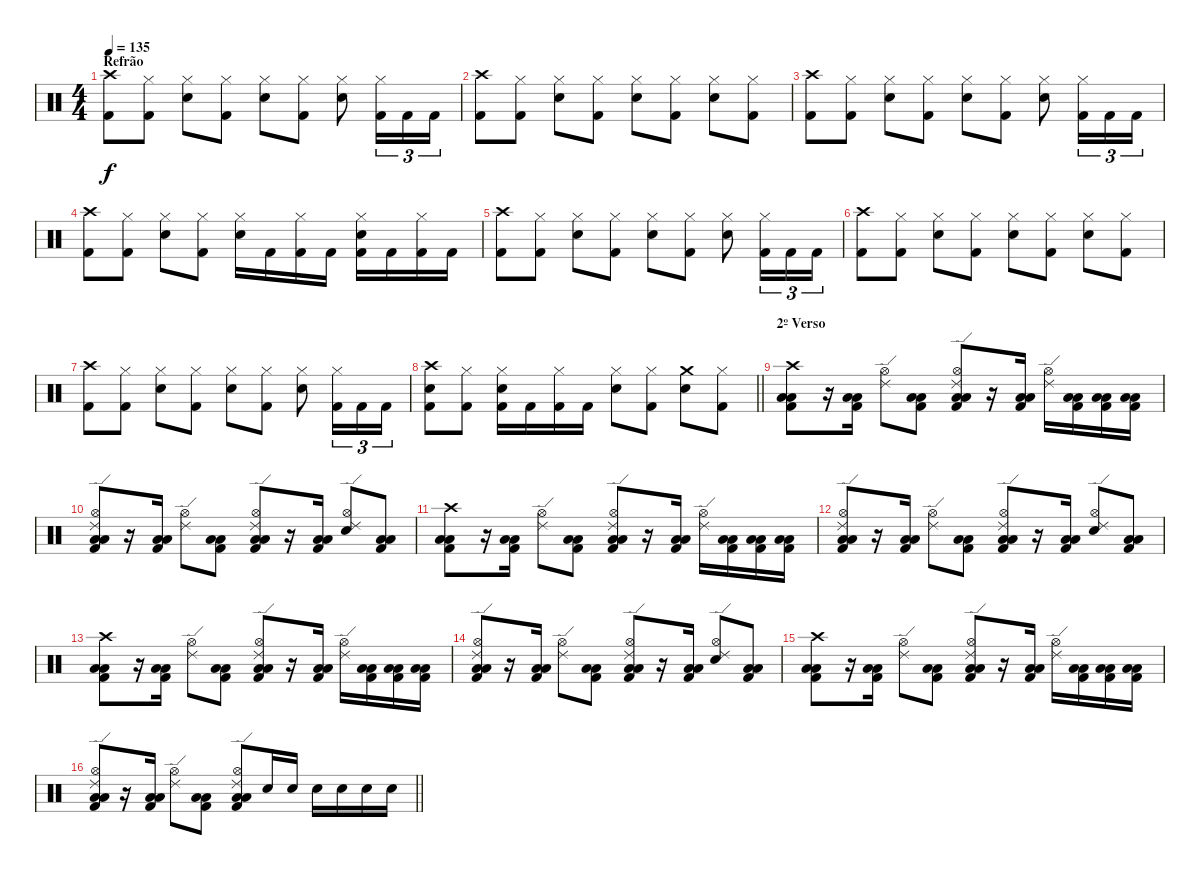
\track "" {instrument percussion}
\staff {score}
\articulation defaults
\ts (4 4)
\section ("" "Refrão")
\tempo 135
\clef neutral
\ks c
("Crash high (hit)" "Kick (hit) 2").8{dy f} ("Hi-Hat (closed)" "Kick (hit) 2").8 ("Hi-Hat (closed)" "Electric Snare (hit)").8 ("Hi-Hat (closed)" "Kick (hit) 2").8 ("Hi-Hat (closed)" "Electric Snare (hit)").8 ("Hi-Hat (closed)" "Kick (hit) 2").8 ("Hi-Hat (closed)" "Electric Snare (hit)").8 ("Hi-Hat (closed)" "Kick (hit) 2").16{tu (3 2)} "Kick (hit) 2".16{tu (3 2)} "Kick (hit) 2".16{tu (3 2)} |
("Crash high (hit)" "Kick (hit) 2").8 ("Hi-Hat (closed)" "Kick (hit) 2").8 ("Hi-Hat (closed)" "Electric Snare (hit)").8 ("Hi-Hat (closed)" "Kick (hit) 2").8 ("Hi-Hat (closed)" "Electric Snare (hit)").8 ("Hi-Hat (closed)" "Kick (hit) 2").8 ("Hi-Hat (closed)" "Electric Snare (hit)").8 ("Hi-Hat (closed)" "Kick (hit) 2").8 |
("Crash high (hit)" "Kick (hit) 2").8 ("Hi-Hat (closed)" "Kick (hit) 2").8 ("Hi-Hat (closed)" "Electric Snare (hit)").8 ("Hi-Hat (closed)" "Kick (hit) 2").8 ("Hi-Hat (closed)" "Electric Snare (hit)").8 ("Hi-Hat (closed)" "Kick (hit) 2").8 ("Hi-Hat (closed)" "Electric Snare (hit)").8 ("Hi-Hat (closed)" "Kick (hit) 2").16{tu (3 2)} "Kick (hit) 2".16{tu (3 2)} "Kick (hit) 2".16{tu (3 2)} |
("Crash high (hit)" "Kick (hit) 2").8 ("Hi-Hat (closed)" "Kick (hit) 2").8 ("Hi-Hat (closed)" "Electric Snare (hit)").8 ("Hi-Hat (closed)" "Kick (hit) 2").8 ("Hi-Hat (closed)" "Electric Snare (hit)").16 "Kick (hit) 2".16 ("Hi-Hat (closed)" "Kick (hit) 2").16 "Kick (hit) 2".16 ("Hi-Hat (closed)" "Electric Snare (hit)" "Kick (hit) 2").16 "Kick (hit) 2".16 ("Hi-Hat (closed)" "Kick (hit) 2").16 "Kick (hit) 2".16 |
("Crash high (hit)" "Kick (hit) 2").8 ("Hi-Hat (closed)" "Kick (hit) 2").8 ("Hi-Hat (closed)" "Electric Snare (hit)").8 ("Hi-Hat (closed)" "Kick (hit) 2").8 ("Hi-Hat (closed)" "Electric Snare (hit)").8 ("Hi-Hat (closed)" "Kick (hit) 2").8 ("Hi-Hat (closed)" "Electric Snare (hit)").8 ("Hi-Hat (closed)" "Kick (hit) 2").16{tu (3 2)} "Kick (hit) 2".16{tu (3 2)} "Kick (hit) 2".16{tu (3 2)} |
("Crash high (hit)" "Kick (hit) 2").8 ("Hi-Hat (closed)" "Kick (hit) 2").8 ("Hi-Hat (closed)" "Electric Snare (hit)").8 ("Hi-Hat (closed)" "Kick (hit) 2").8 ("Hi-Hat (closed)" "Electric Snare (hit)").8 ("Hi-Hat (closed)" "Kick (hit) 2").8 ("Hi-Hat (closed)" "Electric Snare (hit)").8 ("Hi-Hat (closed)" "Kick (hit) 2").8 |
("Crash high (hit)" "Kick (hit) 2").8 ("Hi-Hat (closed)" "Kick (hit) 2").8 ("Hi-Hat (closed)" "Electric Snare (hit)").8 ("Hi-Hat (closed)" "Kick (hit) 2").8 ("Hi-Hat (closed)" "Electric Snare (hit)").8 ("Hi-Hat (closed)" "Kick (hit) 2").8 ("Hi-Hat (closed)" "Electric Snare (hit)").8 ("Hi-Hat (closed)" "Kick (hit) 2").16{tu (3 2)} "Kick (hit) 2".16{tu (3 2)} "Kick (hit) 2".16{tu (3 2)} |
\barLineRight lightlight
("Crash high (hit)" "Electric Snare (hit)" "Kick (hit) 2").8 ("Hi-Hat (closed)" "Kick (hit) 2").8 ("Hi-Hat (closed)" "Electric Snare (hit)" "Kick (hit) 2").16 "Kick (hit) 2".16 ("Hi-Hat (closed)" "Kick (hit) 2").16 "Kick (hit) 2".16 ("Hi-Hat (closed)" "Electric Snare (hit)").8 ("Hi-Hat (closed)" "Kick (hit) 2").8 ("Crash medium (hit)" "Electric Snare (hit)").8 ("Hi-Hat (closed)" "Kick (hit) 2").8 |
\section ("" "2º Verso")
("Crash high (hit)" "Low Floor Tom (hit)" "Low Tom (hit)" "Kick (hit) 2").8 r.16 ("Low Floor Tom (hit)" "Low Tom (hit)" "Kick (hit) 2").16 ("Hi-Hat (open)" "Ride (edge) 2").8 ("Low Floor Tom (hit)" "Low Tom (hit)" "Kick (hit) 2").8 ("Hi-Hat (open)" "Ride (edge) 2" "Low Floor Tom (hit)" "Low Tom (hit)" "Kick (hit) 2").8 r.16 ("Low Floor Tom (hit)" "Low Tom (hit)" "Kick (hit) 2").16 ("Hi-Hat (open)" "Ride (edge) 2").16 ("Low Floor Tom (hit)" "Low Tom (hit)" "Kick (hit) 2").16 ("Low Floor Tom (hit)" "Low Tom (hit)" "Kick (hit) 2").16 ("Low Floor Tom (hit)" "Low Tom (hit)" "Kick (hit) 2").16 |
("Hi-Hat (open)" "Ride (edge) 2" "Low Floor Tom (hit)" "Low Tom (hit)" "Kick (hit) 2").8 r.16 ("Low Floor Tom (hit)" "Low Tom (hit)" "Kick (hit) 2").16 ("Hi-Hat (open)" "Ride (edge) 2").8 ("Low Floor Tom (hit)" "Low Tom (hit)" "Kick (hit) 2").8 ("Hi-Hat (open)" "Ride (edge) 2" "Low Floor Tom (hit)" "Low Tom (hit)" "Kick (hit) 2").8 r.16 ("Low Floor Tom (hit)" "Low Tom (hit)" "Kick (hit) 2").16 ("Hi-Hat (open)" "Ride (edge) 2" "Electric Snare (hit)").8 ("Low Floor Tom (hit)" "Low Tom (hit)" "Kick (hit) 2").8 |
("Crash high (hit)" "Low Floor Tom (hit)" "Low Tom (hit)" "Kick (hit) 2").8 r.16 ("Low Floor Tom (hit)" "Low Tom (hit)" "Kick (hit) 2").16 ("Hi-Hat (open)" "Ride (edge) 2").8 ("Low Floor Tom (hit)" "Low Tom (hit)" "Kick (hit) 2").8 ("Hi-Hat (open)" "Ride (edge) 2" "Low Floor Tom (hit)" "Low Tom (hit)" "Kick (hit) 2").8 r.16 ("Low Floor Tom (hit)" "Low Tom (hit)" "Kick (hit) 2").16 ("Hi-Hat (open)" "Ride (edge) 2").16 ("Low Floor Tom (hit)" "Low Tom (hit)" "Kick (hit) 2").16 ("Low Floor Tom (hit)" "Low Tom (hit)" "Kick (hit) 2").16 ("Low Floor Tom (hit)" "Low Tom (hit)" "Kick (hit) 2").16 |
("Hi-Hat (open)" "Ride (edge) 2" "Low Floor Tom (hit)" "Low Tom (hit)" "Kick (hit) 2").8 r.16 ("Low Floor Tom (hit)" "Low Tom (hit)" "Kick (hit) 2").16 ("Hi-Hat (open)" "Ride (edge) 2").8 ("Low Floor Tom (hit)" "Low Tom (hit)" "Kick (hit) 2").8 ("Hi-Hat (open)" "Ride (edge) 2" "Low Floor Tom (hit)" "Low Tom (hit)" "Kick (hit) 2").8 r.16 ("Low Floor Tom (hit)" "Low Tom (hit)" "Kick (hit) 2").16 ("Hi-Hat (open)" "Ride (edge) 2" "Electric Snare (hit)").8 ("Low Floor Tom (hit)" "Low Tom (hit)" "Kick (hit) 2").8 |
("Crash high (hit)" "Low Floor Tom (hit)" "Low Tom (hit)" "Kick (hit) 2").8 r.16 ("Low Floor Tom (hit)" "Low Tom (hit)" "Kick (hit) 2").16 ("Hi-Hat (open)" "Ride (edge) 2").8 ("Low Floor Tom (hit)" "Low Tom (hit)" "Kick (hit) 2").8 ("Hi-Hat (open)" "Ride (edge) 2" "Low Floor Tom (hit)" "Low Tom (hit)" "Kick (hit) 2").8 r.16 ("Low Floor Tom (hit)" "Low Tom (hit)" "Kick (hit) 2").16 ("Hi-Hat (open)" "Ride (edge) 2").16 ("Low Floor Tom (hit)" "Low Tom (hit)" "Kick (hit) 2").16 ("Low Floor Tom (hit)" "Low Tom (hit)" "Kick (hit) 2").16 ("Low Floor Tom (hit)" "Low Tom (hit)" "Kick (hit) 2").16 |
("Hi-Hat (open)" "Ride (edge) 2" "Low Floor Tom (hit)" "Low Tom (hit)" "Kick (hit) 2").8 r.16 ("Low Floor Tom (hit)" "Low Tom (hit)" "Kick (hit) 2").16 ("Hi-Hat (open)" "Ride (edge) 2").8 ("Low Floor Tom (hit)" "Low Tom (hit)" "Kick (hit) 2").8 ("Hi-Hat (open)" "Ride (edge) 2" "Low Floor Tom (hit)" "Low Tom (hit)" "Kick (hit) 2").8 r.16 ("Low Floor Tom (hit)" "Low Tom (hit)" "Kick (hit) 2").16 ("Hi-Hat (open)" "Ride (edge) 2" "Electric Snare (hit)").8 ("Low Floor Tom (hit)" "Low Tom (hit)" "Kick (hit) 2").8 |
("Crash high (hit)" "Low Floor Tom (hit)" "Low Tom (hit)" "Kick (hit) 2").8 r.16 ("Low Floor Tom (hit)" "Low Tom (hit)" "Kick (hit) 2").16 ("Hi-Hat (open)" "Ride (edge) 2").8 ("Low Floor Tom (hit)" "Low Tom (hit)" "Kick (hit) 2").8 ("Hi-Hat (open)" "Ride (edge) 2" "Low Floor Tom (hit)" "Low Tom (hit)" "Kick (hit) 2").8 r.16 ("Low Floor Tom (hit)" "Low Tom (hit)" "Kick (hit) 2").16 ("Hi-Hat (open)" "Ride (edge) 2").16 ("Low Floor Tom (hit)" "Low Tom (hit)" "Kick (hit) 2").16 ("Low Floor Tom (hit)" "Low Tom (hit)" "Kick (hit) 2").16 ("Low Floor Tom (hit)" "Low Tom (hit)" "Kick (hit) 2").16 |
\barLineRight lightlight
("Hi-Hat (open)" "Ride (edge) 2" "Low Floor Tom (hit)" "Low Tom (hit)" "Kick (hit) 2").8 r.16 ("Low Floor Tom (hit)" "Low Tom (hit)" "Kick (hit) 2").16 ("Hi-Hat (open)" "Ride (edge) 2").8 ("Low Floor Tom (hit)" "Low Tom (hit)" "Kick (hit) 2").8 ("Hi-Hat (open)" "Ride (edge) 2" "Low Floor Tom (hit)" "Low Tom (hit)" "Kick (hit) 2").8 "Electric Snare (hit)".16 "Electric Snare (hit)".16 "Electric Snare (hit)".16 "Electric Snare (hit)".16 "Electric Snare (hit)".16 "Electric Snare (hit)".16
